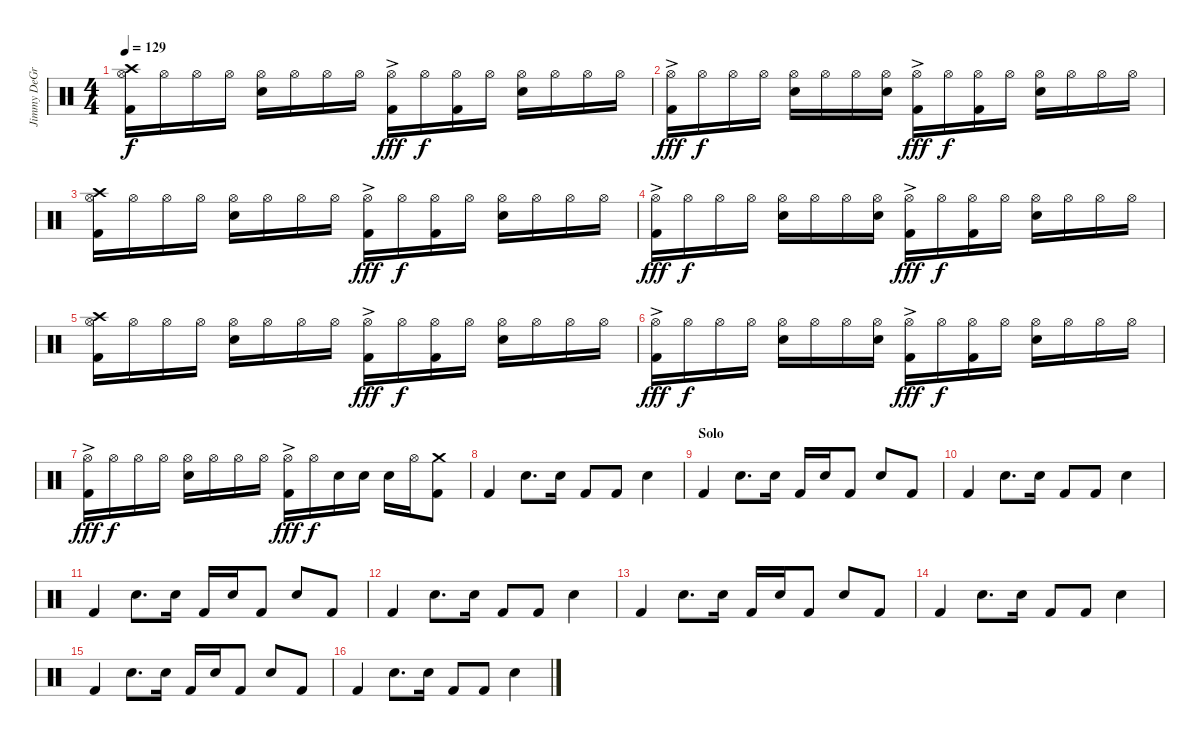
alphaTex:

\track ("Jimmy DeGrasso (Drums)" "Jimmy DeGr") {instrument percussion}
\staff {score}
\articulation defaults
\ts (4 4)
\tempo 129
\clef neutral
\ks c
("Crash high (hit)" "Hi-Hat (open)" "Kick (hit) 2").16{dy f} "Hi-Hat (open)".16 "Hi-Hat (open)".16 "Hi-Hat (open)".16 ("Hi-Hat (open)" "Electric Snare (hit)").16 "Hi-Hat (open)".16 "Hi-Hat (open)".16 "Hi-Hat (open)".16 ("Hi-Hat (open)"{ac} "Kick (hit) 2").16{dy fff} "Hi-Hat (open)".16{dy f} ("Hi-Hat (open)" "Kick (hit) 2").16 "Hi-Hat (open)".16 ("Hi-Hat (open)" "Electric Snare (hit)").16 "Hi-Hat (open)".16 "Hi-Hat (open)".16 "Hi-Hat (open)".16 |
("Hi-Hat (open)"{ac} "Kick (hit) 2").16{dy fff} "Hi-Hat (open)".16{dy f} "Hi-Hat (open)".16 "Hi-Hat (open)".16 ("Hi-Hat (open)" "Electric Snare (hit)").16 "Hi-Hat (open)".16 "Hi-Hat (open)".16 ("Hi-Hat (open)" "Electric Snare (hit)").16 ("Hi-Hat (open)"{ac} "Kick (hit) 2").16{dy fff} "Hi-Hat (open)".16{dy f} ("Hi-Hat (open)" "Kick (hit) 2").16 "Hi-Hat (open)".16 ("Hi-Hat (open)" "Electric Snare (hit)").16 "Hi-Hat (open)".16 "Hi-Hat (open)".16 "Hi-Hat (open)".16 |
("Crash high (hit)" "Hi-Hat (open)" "Kick (hit) 2").16 "Hi-Hat (open)".16 "Hi-Hat (open)".16 "Hi-Hat (open)".16 ("Hi-Hat (open)" "Electric Snare (hit)").16 "Hi-Hat (open)".16 "Hi-Hat (open)".16 "Hi-Hat (open)".16 ("Hi-Hat (open)"{ac} "Kick (hit) 2").16{dy fff} "Hi-Hat (open)".16{dy f} ("Hi-Hat (open)" "Kick (hit) 2").16 "Hi-Hat (open)".16 ("Hi-Hat (open)" "Electric Snare (hit)").16 "Hi-Hat (open)".16 "Hi-Hat (open)".16 "Hi-Hat (open)".16 |
("Hi-Hat (open)"{ac} "Kick (hit) 2").16{dy fff} "Hi-Hat (open)".16{dy f} "Hi-Hat (open)".16 "Hi-Hat (open)".16 ("Hi-Hat (open)" "Electric Snare (hit)").16 "Hi-Hat (open)".16 "Hi-Hat (open)".16 ("Hi-Hat (open)" "Electric Snare (hit)").16 ("Hi-Hat (open)"{ac} "Kick (hit) 2").16{dy fff} "Hi-Hat (open)".16{dy f} ("Hi-Hat (open)" "Kick (hit) 2").16 "Hi-Hat (open)".16 ("Hi-Hat (open)" "Electric Snare (hit)").16 "Hi-Hat (open)".16 "Hi-Hat (open)".16 "Hi-Hat (open)".16 |
("Crash high (hit)" "Hi-Hat (open)" "Kick (hit) 2").16 "Hi-Hat (open)".16 "Hi-Hat (open)".16 "Hi-Hat (open)".16 ("Hi-Hat (open)" "Electric Snare (hit)").16 "Hi-Hat (open)".16 "Hi-Hat (open)".16 "Hi-Hat (open)".16 ("Hi-Hat (open)"{ac} "Kick (hit) 2").16{dy fff} "Hi-Hat (open)".16{dy f} ("Hi-Hat (open)" "Kick (hit) 2").16 "Hi-Hat (open)".16 ("Hi-Hat (open)" "Electric Snare (hit)").16 "Hi-Hat (open)".16 "Hi-Hat (open)".16 "Hi-Hat (open)".16 |
("Hi-Hat (open)"{ac} "Kick (hit) 2").16{dy fff} "Hi-Hat (open)".16{dy f} "Hi-Hat (open)".16 "Hi-Hat (open)".16 ("Hi-Hat (open)" "Electric Snare (hit)").16 "Hi-Hat (open)".16 "Hi-Hat (open)".16 ("Hi-Hat (open)" "Electric Snare (hit)").16 ("Hi-Hat (open)"{ac} "Kick (hit) 2").16{dy fff} "Hi-Hat (open)".16{dy f} ("Hi-Hat (open)" "Kick (hit) 2").16 "Hi-Hat (open)".16 ("Hi-Hat (open)" "Electric Snare (hit)").16 "Hi-Hat (open)".16 "Hi-Hat (open)".16 "Hi-Hat (open)".16 |
("Hi-Hat (open)"{ac} "Kick (hit) 2").16{dy fff} "Hi-Hat (open)".16{dy f} "Hi-Hat (open)".16 "Hi-Hat (open)".16 ("Hi-Hat (open)" "Electric Snare (hit)").16 "Hi-Hat (open)".16 "Hi-Hat (open)".16 "Hi-Hat (open)".16 ("Hi-Hat (open)"{ac} "Kick (hit) 2").16{dy fff} "Hi-Hat (open)".16{dy f} "Electric Snare (hit)".16 "Electric Snare (hit)".16 "Electric Snare (hit)".16 "Hi-Hat (open)".16 ("Crash medium (hit)" "Kick (hit) 2").8 |
"Kick (hit) 2".4{volume 8} "Electric Snare (hit)".8{d} "Electric Snare (hit)".16 "Kick (hit) 2".8 "Kick (hit) 2".8 "Electric Snare (hit)".4 |
\section ("" "Solo")
"Kick (hit) 2".4 "Electric Snare (hit)".8{d} "Electric Snare (hit)".16 "Kick (hit) 2".16 "Electric Snare (hit)".16 "Kick (hit) 2".8 "Electric Snare (hit)".8 "Kick (hit) 2".8 |
"Kick (hit) 2".4 "Electric Snare (hit)".8{d} "Electric Snare (hit)".16 "Kick (hit) 2".8 "Kick (hit) 2".8 "Electric Snare (hit)".4 |
"Kick (hit) 2".4 "Electric Snare (hit)".8{d} "Electric Snare (hit)".16 "Kick (hit) 2".16 "Electric Snare (hit)".16 "Kick (hit) 2".8 "Electric Snare (hit)".8 "Kick (hit) 2".8 |
"Kick (hit) 2".4 "Electric Snare (hit)".8{d} "Electric Snare (hit)".16 "Kick (hit) 2".8 "Kick (hit) 2".8 "Electric Snare (hit)".4 |
"Kick (hit) 2".4 "Electric Snare (hit)".8{d} "Electric Snare (hit)".16 "Kick (hit) 2".16 "Electric Snare (hit)".16 "Kick (hit) 2".8 "Electric Snare (hit)".8 "Kick (hit) 2".8 |
"Kick (hit) 2".4 "Electric Snare (hit)".8{d} "Electric Snare (hit)".16 "Kick (hit) 2".8 "Kick (hit) 2".8 "Electric Snare (hit)".4 |
"Kick (hit) 2".4 "Electric Snare (hit)".8{d} "Electric Snare (hit)".16 "Kick (hit) 2".16 "Electric Snare (hit)".16 "Kick (hit) 2".8 "Electric Snare (hit)".8 "Kick (hit) 2".8 |
"Kick (hit) 2".4 "Electric Snare (hit)".8{d} "Electric Snare (hit)".16 "Kick (hit) 2".8 "Kick (hit) 2".8 "Electric Snare (hit)".4
